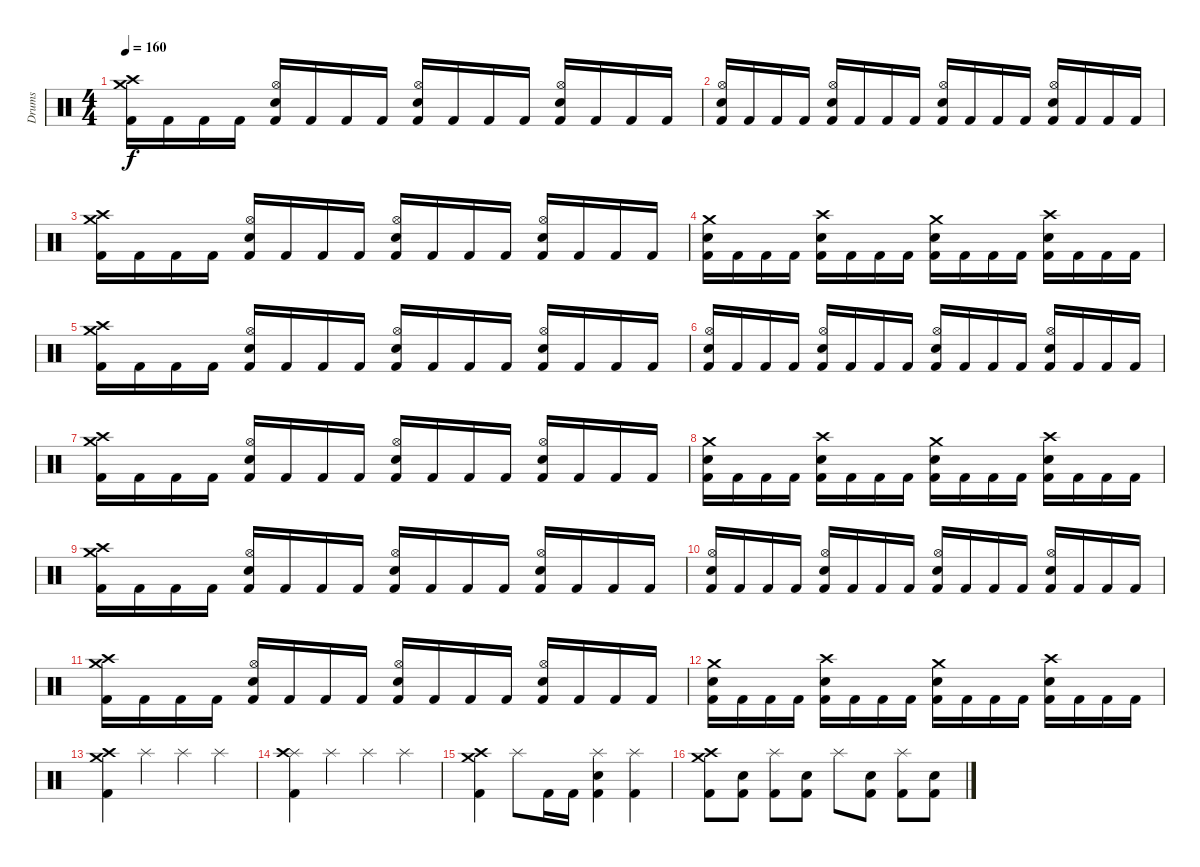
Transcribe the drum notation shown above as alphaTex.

\track ("Drums" "Drums") {instrument percussion}
\staff {score}
\articulation defaults
\ts (4 4)
\tempo 160
\clef neutral
\ks c
("Crash high (hit)" "Crash medium (hit)" "Kick (hit) 2").16{dy f} "Kick (hit) 2".16 "Kick (hit) 2".16 "Kick (hit) 2".16 ("Hi-Hat (open)" "Snare (hit) 2" "Kick (hit) 2").16 "Kick (hit) 2".16 "Kick (hit) 2".16 "Kick (hit) 2".16 ("Hi-Hat (open)" "Snare (hit) 2" "Kick (hit) 2").16 "Kick (hit) 2".16 "Kick (hit) 2".16 "Kick (hit) 2".16 ("Hi-Hat (open)" "Snare (hit) 2" "Kick (hit) 2").16 "Kick (hit) 2".16 "Kick (hit) 2".16 "Kick (hit) 2".16 |
("Hi-Hat (open)" "Snare (hit) 2" "Kick (hit) 2").16 "Kick (hit) 2".16 "Kick (hit) 2".16 "Kick (hit) 2".16 ("Hi-Hat (open)" "Snare (hit) 2" "Kick (hit) 2").16 "Kick (hit) 2".16 "Kick (hit) 2".16 "Kick (hit) 2".16 ("Hi-Hat (open)" "Snare (hit) 2" "Kick (hit) 2").16 "Kick (hit) 2".16 "Kick (hit) 2".16 "Kick (hit) 2".16 ("Hi-Hat (open)" "Snare (hit) 2" "Kick (hit) 2").16 "Kick (hit) 2".16 "Kick (hit) 2".16 "Kick (hit) 2".16 |
("Crash high (hit)" "Crash medium (hit)" "Kick (hit) 2").16 "Kick (hit) 2".16 "Kick (hit) 2".16 "Kick (hit) 2".16 ("Hi-Hat (open)" "Snare (hit) 2" "Kick (hit) 2").16 "Kick (hit) 2".16 "Kick (hit) 2".16 "Kick (hit) 2".16 ("Hi-Hat (open)" "Snare (hit) 2" "Kick (hit) 2").16 "Kick (hit) 2".16 "Kick (hit) 2".16 "Kick (hit) 2".16 ("Hi-Hat (open)" "Snare (hit) 2" "Kick (hit) 2").16 "Kick (hit) 2".16 "Kick (hit) 2".16 "Kick (hit) 2".16 |
("Crash medium (hit)" "Snare (hit) 2" "Kick (hit) 2").16 "Kick (hit) 2".16 "Kick (hit) 2".16 "Kick (hit) 2".16 ("Crash high (hit)" "Snare (hit) 2" "Kick (hit) 2").16 "Kick (hit) 2".16 "Kick (hit) 2".16 "Kick (hit) 2".16 ("Crash medium (hit)" "Snare (hit) 2" "Kick (hit) 2").16 "Kick (hit) 2".16 "Kick (hit) 2".16 "Kick (hit) 2".16 ("Crash high (hit)" "Snare (hit) 2" "Kick (hit) 2").16 "Kick (hit) 2".16 "Kick (hit) 2".16 "Kick (hit) 2".16 |
("Crash high (hit)" "Crash medium (hit)" "Kick (hit) 2").16 "Kick (hit) 2".16 "Kick (hit) 2".16 "Kick (hit) 2".16 ("Hi-Hat (open)" "Snare (hit) 2" "Kick (hit) 2").16 "Kick (hit) 2".16 "Kick (hit) 2".16 "Kick (hit) 2".16 ("Hi-Hat (open)" "Snare (hit) 2" "Kick (hit) 2").16 "Kick (hit) 2".16 "Kick (hit) 2".16 "Kick (hit) 2".16 ("Hi-Hat (open)" "Snare (hit) 2" "Kick (hit) 2").16 "Kick (hit) 2".16 "Kick (hit) 2".16 "Kick (hit) 2".16 |
("Hi-Hat (open)" "Snare (hit) 2" "Kick (hit) 2").16 "Kick (hit) 2".16 "Kick (hit) 2".16 "Kick (hit) 2".16 ("Hi-Hat (open)" "Snare (hit) 2" "Kick (hit) 2").16 "Kick (hit) 2".16 "Kick (hit) 2".16 "Kick (hit) 2".16 ("Hi-Hat (open)" "Snare (hit) 2" "Kick (hit) 2").16 "Kick (hit) 2".16 "Kick (hit) 2".16 "Kick (hit) 2".16 ("Hi-Hat (open)" "Snare (hit) 2" "Kick (hit) 2").16 "Kick (hit) 2".16 "Kick (hit) 2".16 "Kick (hit) 2".16 |
("Crash high (hit)" "Crash medium (hit)" "Kick (hit) 2").16 "Kick (hit) 2".16 "Kick (hit) 2".16 "Kick (hit) 2".16 ("Hi-Hat (open)" "Snare (hit) 2" "Kick (hit) 2").16 "Kick (hit) 2".16 "Kick (hit) 2".16 "Kick (hit) 2".16 ("Hi-Hat (open)" "Snare (hit) 2" "Kick (hit) 2").16 "Kick (hit) 2".16 "Kick (hit) 2".16 "Kick (hit) 2".16 ("Hi-Hat (open)" "Snare (hit) 2" "Kick (hit) 2").16 "Kick (hit) 2".16 "Kick (hit) 2".16 "Kick (hit) 2".16 |
("Crash medium (hit)" "Snare (hit) 2" "Kick (hit) 2").16 "Kick (hit) 2".16 "Kick (hit) 2".16 "Kick (hit) 2".16 ("Crash high (hit)" "Snare (hit) 2" "Kick (hit) 2").16 "Kick (hit) 2".16 "Kick (hit) 2".16 "Kick (hit) 2".16 ("Crash medium (hit)" "Snare (hit) 2" "Kick (hit) 2").16 "Kick (hit) 2".16 "Kick (hit) 2".16 "Kick (hit) 2".16 ("Crash high (hit)" "Snare (hit) 2" "Kick (hit) 2").16 "Kick (hit) 2".16 "Kick (hit) 2".16 "Kick (hit) 2".16 |
("Crash high (hit)" "Crash medium (hit)" "Kick (hit) 2").16 "Kick (hit) 2".16 "Kick (hit) 2".16 "Kick (hit) 2".16 ("Hi-Hat (open)" "Snare (hit) 2" "Kick (hit) 2").16 "Kick (hit) 2".16 "Kick (hit) 2".16 "Kick (hit) 2".16 ("Hi-Hat (open)" "Snare (hit) 2" "Kick (hit) 2").16 "Kick (hit) 2".16 "Kick (hit) 2".16 "Kick (hit) 2".16 ("Hi-Hat (open)" "Snare (hit) 2" "Kick (hit) 2").16 "Kick (hit) 2".16 "Kick (hit) 2".16 "Kick (hit) 2".16 |
("Hi-Hat (open)" "Snare (hit) 2" "Kick (hit) 2").16 "Kick (hit) 2".16 "Kick (hit) 2".16 "Kick (hit) 2".16 ("Hi-Hat (open)" "Snare (hit) 2" "Kick (hit) 2").16 "Kick (hit) 2".16 "Kick (hit) 2".16 "Kick (hit) 2".16 ("Hi-Hat (open)" "Snare (hit) 2" "Kick (hit) 2").16 "Kick (hit) 2".16 "Kick (hit) 2".16 "Kick (hit) 2".16 ("Hi-Hat (open)" "Snare (hit) 2" "Kick (hit) 2").16 "Kick (hit) 2".16 "Kick (hit) 2".16 "Kick (hit) 2".16 |
("Crash high (hit)" "Crash medium (hit)" "Kick (hit) 2").16 "Kick (hit) 2".16 "Kick (hit) 2".16 "Kick (hit) 2".16 ("Hi-Hat (open)" "Snare (hit) 2" "Kick (hit) 2").16 "Kick (hit) 2".16 "Kick (hit) 2".16 "Kick (hit) 2".16 ("Hi-Hat (open)" "Snare (hit) 2" "Kick (hit) 2").16 "Kick (hit) 2".16 "Kick (hit) 2".16 "Kick (hit) 2".16 ("Hi-Hat (open)" "Snare (hit) 2" "Kick (hit) 2").16 "Kick (hit) 2".16 "Kick (hit) 2".16 "Kick (hit) 2".16 |
("Crash medium (hit)" "Snare (hit) 2" "Kick (hit) 2").16 "Kick (hit) 2".16 "Kick (hit) 2".16 "Kick (hit) 2".16 ("Crash high (hit)" "Snare (hit) 2" "Kick (hit) 2").16 "Kick (hit) 2".16 "Kick (hit) 2".16 "Kick (hit) 2".16 ("Crash medium (hit)" "Snare (hit) 2" "Kick (hit) 2").16 "Kick (hit) 2".16 "Kick (hit) 2".16 "Kick (hit) 2".16 ("Crash high (hit)" "Snare (hit) 2" "Kick (hit) 2").16 "Kick (hit) 2".16 "Kick (hit) 2".16 "Kick (hit) 2".16 |
("Crash medium (hit)" "Crash high (hit)" "Kick (hit) 2").4 "Splash (hit)".4 "Splash (hit)".4 "Splash (hit)".4 |
("Splash (hit)" "Crash high (hit)" "Kick (hit) 2").4 "Splash (hit)".4 "Splash (hit)".4 "Splash (hit)".4 |
("Crash high (hit)" "Crash medium (hit)" "Kick (hit) 2").4 "Splash (hit)".8 "Kick (hit) 2".16 "Kick (hit) 2".16 ("Splash (hit)" "Snare (hit) 2" "Kick (hit) 2").4 ("Splash (hit)" "Kick (hit) 2").4 |
("Crash medium (hit)" "Crash high (hit)" "Kick (hit) 2").8 ("Snare (hit) 2" "Kick (hit) 2").8 ("Splash (hit)" "Kick (hit) 2").8 ("Snare (hit) 2" "Kick (hit) 2").8 "Splash (hit)".8 ("Snare (hit) 2" "Kick (hit) 2").8 ("Splash (hit)" "Kick (hit) 2").8 ("Snare (hit) 2" "Kick (hit) 2").8
